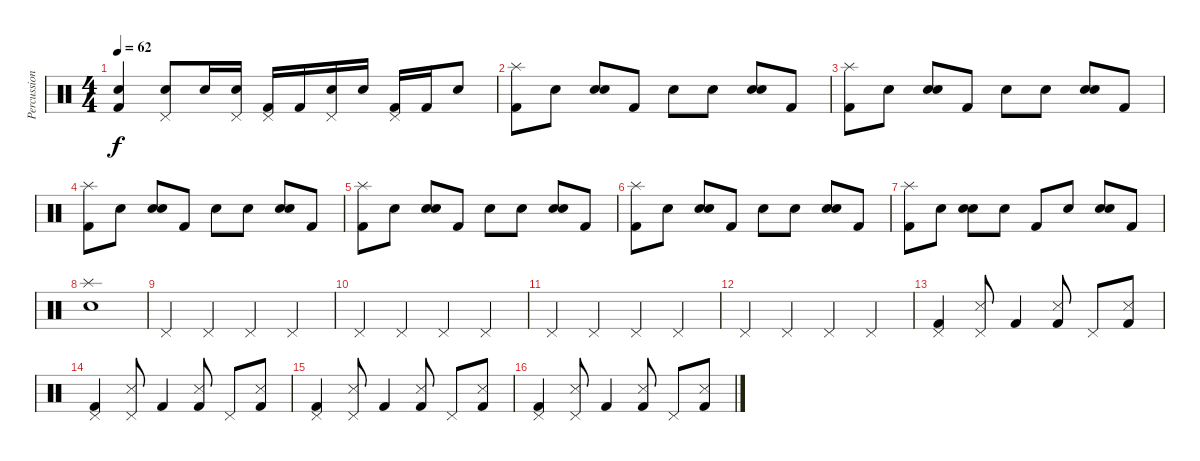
\track ("Percussions" "Percussion") {instrument percussion}
\staff {score}
\articulation defaults
\ts (4 4)
\tempo 62
\clef neutral
\ks c
("Kick (hit) 2" "Electric Snare (hit)").4{dy f} ("Snare (hit) 2" "Pedal Hi-Hat (hit)").8 "Snare (hit) 2".16 ("Snare (hit) 2" "Pedal Hi-Hat (hit)").16 ("Kick (hit) 2" "Pedal Hi-Hat (hit)").16 "Kick (hit) 2".16 ("Snare (hit) 2" "Pedal Hi-Hat (hit)").16 "Snare (hit) 2".16 ("Kick (hit) 2" "Pedal Hi-Hat (hit)").16 "Kick (hit) 2".16 "Snare (hit) 2".8 |
("Kick (hit) 2" "Splash (hit)").8 "Electric Snare (hit)".8 ("Snare (hit) 2" "Electric Snare (hit)").8 "Kick (hit) 2".8 "Electric Snare (hit)".8 "Electric Snare (hit)".8 ("Snare (hit) 2" "Electric Snare (hit)").8 "Kick (hit) 2".8 |
("Kick (hit) 2" "Splash (hit)").8 "Electric Snare (hit)".8 ("Snare (hit) 2" "Electric Snare (hit)").8 "Kick (hit) 2".8 "Electric Snare (hit)".8 "Electric Snare (hit)".8 ("Snare (hit) 2" "Electric Snare (hit)").8 "Kick (hit) 2".8 |
("Kick (hit) 2" "Splash (hit)").8 "Electric Snare (hit)".8 ("Snare (hit) 2" "Electric Snare (hit)").8 "Kick (hit) 2".8 "Electric Snare (hit)".8 "Electric Snare (hit)".8 ("Snare (hit) 2" "Electric Snare (hit)").8 "Kick (hit) 2".8 |
("Kick (hit) 2" "Splash (hit)").8 "Electric Snare (hit)".8 ("Snare (hit) 2" "Electric Snare (hit)").8 "Kick (hit) 2".8 "Electric Snare (hit)".8 "Electric Snare (hit)".8 ("Snare (hit) 2" "Electric Snare (hit)").8 "Kick (hit) 2".8 |
("Kick (hit) 2" "Splash (hit)").8 "Electric Snare (hit)".8 ("Snare (hit) 2" "Electric Snare (hit)").8 "Kick (hit) 2".8 "Electric Snare (hit)".8 "Electric Snare (hit)".8 ("Snare (hit) 2" "Electric Snare (hit)").8 "Kick (hit) 2".8 |
("Kick (hit) 2" "Splash (hit)").8 "Electric Snare (hit)".8 ("Snare (hit) 2" "Electric Snare (hit)").8 "Electric Snare (hit)".8 "Kick (hit) 2".8 "Electric Snare (hit)".8 ("Snare (hit) 2" "Electric Snare (hit)").8 "Kick (hit) 2".8 |
("Snare (hit) 2" "Splash (hit)").1 |
"Pedal Hi-Hat (hit)".4 "Pedal Hi-Hat (hit)".4 "Pedal Hi-Hat (hit)".4 "Pedal Hi-Hat (hit)".4 |
"Pedal Hi-Hat (hit)".4 "Pedal Hi-Hat (hit)".4 "Pedal Hi-Hat (hit)".4 "Pedal Hi-Hat (hit)".4 |
"Pedal Hi-Hat (hit)".4 "Pedal Hi-Hat (hit)".4 "Pedal Hi-Hat (hit)".4 "Pedal Hi-Hat (hit)".4 |
"Pedal Hi-Hat (hit)".4 "Pedal Hi-Hat (hit)".4 "Pedal Hi-Hat (hit)".4 "Pedal Hi-Hat (hit)".4 |
("Kick (hit) 2" "Pedal Hi-Hat (hit)").4 ("Snare (side stick) 3" "Pedal Hi-Hat (hit)").8 "Kick (hit) 2".4 ("Kick (hit) 2" "Snare (side stick) 3").8 "Pedal Hi-Hat (hit)".8 ("Kick (hit) 2" "Snare (side stick) 3").8 |
("Kick (hit) 2" "Pedal Hi-Hat (hit)").4 ("Snare (side stick) 3" "Pedal Hi-Hat (hit)").8 "Kick (hit) 2".4 ("Kick (hit) 2" "Snare (side stick) 3").8 "Pedal Hi-Hat (hit)".8 ("Kick (hit) 2" "Snare (side stick) 3").8 |
("Kick (hit) 2" "Pedal Hi-Hat (hit)").4 ("Snare (side stick) 3" "Pedal Hi-Hat (hit)").8 "Kick (hit) 2".4 ("Kick (hit) 2" "Snare (side stick) 3").8 "Pedal Hi-Hat (hit)".8 ("Kick (hit) 2" "Snare (side stick) 3").8 |
("Kick (hit) 2" "Pedal Hi-Hat (hit)").4 ("Snare (side stick) 3" "Pedal Hi-Hat (hit)").8 "Kick (hit) 2".4 ("Kick (hit) 2" "Snare (side stick) 3").8 "Pedal Hi-Hat (hit)".8 ("Kick (hit) 2" "Snare (side stick) 3").8
